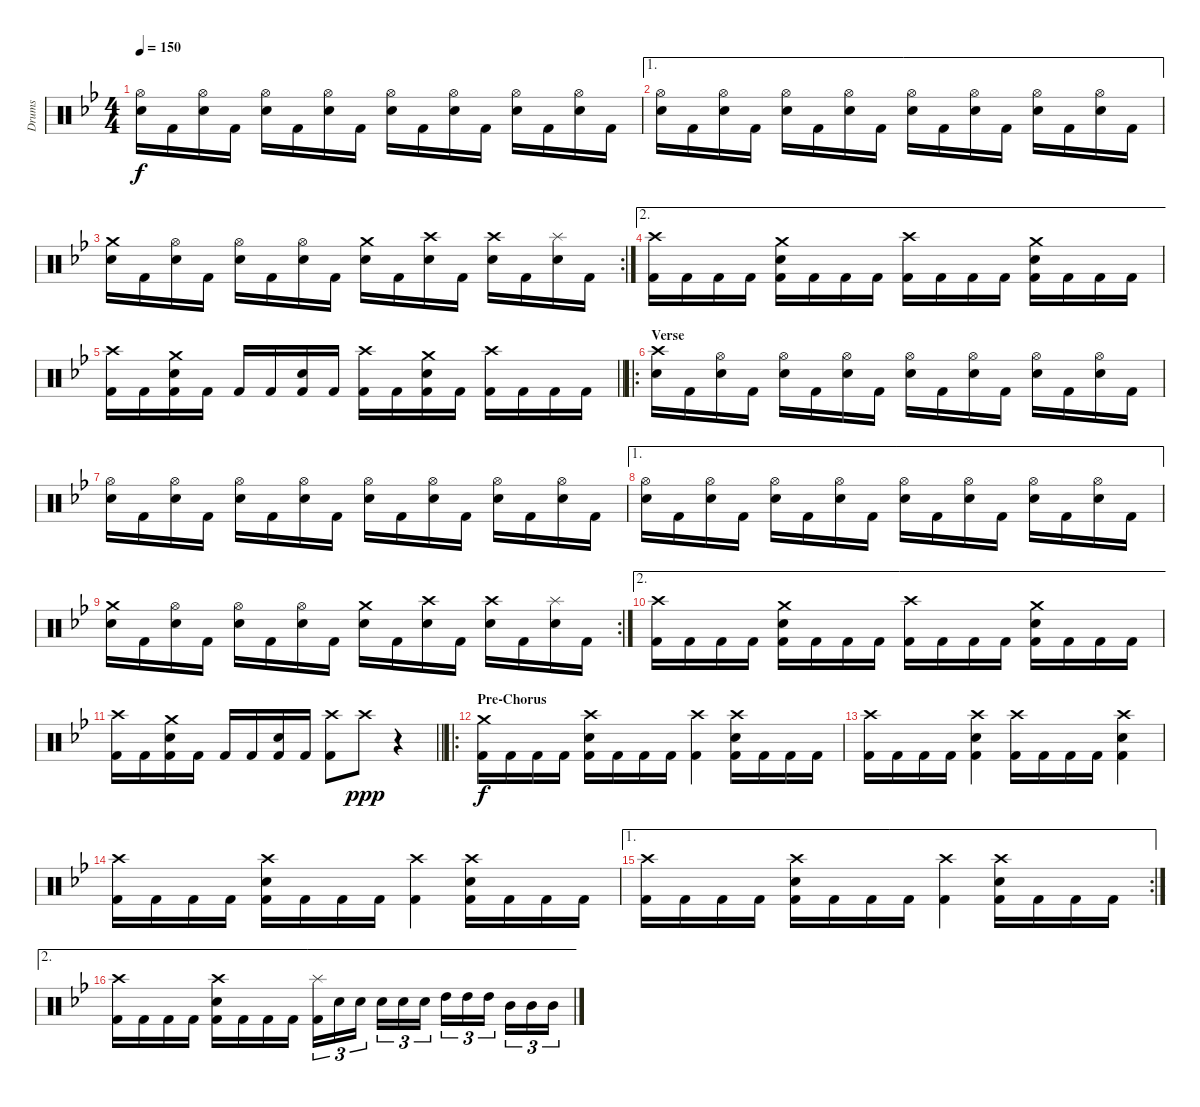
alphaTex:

\track ("Drums" "Drums") {instrument percussion}
\staff {score}
\articulation defaults
\ts (4 4)
\tempo 150
\clef neutral
\ks gminor
("Snare (hit) 2" "Hi-Hat (open)").16{dy f} "Kick (hit) 2".16 ("Snare (hit) 2" "Hi-Hat (open)").16 "Kick (hit) 2".16 ("Snare (hit) 2" "Hi-Hat (open)").16 "Kick (hit) 2".16 ("Snare (hit) 2" "Hi-Hat (open)").16 "Kick (hit) 2".16 ("Snare (hit) 2" "Hi-Hat (open)").16 "Kick (hit) 2".16 ("Snare (hit) 2" "Hi-Hat (open)").16 "Kick (hit) 2".16 ("Snare (hit) 2" "Hi-Hat (open)").16 "Kick (hit) 2".16 ("Snare (hit) 2" "Hi-Hat (open)").16 "Kick (hit) 2".16 |
\ae 1
("Snare (hit) 2" "Hi-Hat (open)").16 "Kick (hit) 2".16 ("Snare (hit) 2" "Hi-Hat (open)").16 "Kick (hit) 2".16 ("Snare (hit) 2" "Hi-Hat (open)").16 "Kick (hit) 2".16 ("Snare (hit) 2" "Hi-Hat (open)").16 "Kick (hit) 2".16 ("Snare (hit) 2" "Hi-Hat (open)").16 "Kick (hit) 2".16 ("Snare (hit) 2" "Hi-Hat (open)").16 "Kick (hit) 2".16 ("Snare (hit) 2" "Hi-Hat (open)").16 "Kick (hit) 2".16 ("Snare (hit) 2" "Hi-Hat (open)").16 "Kick (hit) 2".16 |
\rc 2
("Snare (hit) 2" "Crash medium (hit)").16 "Kick (hit) 2".16 ("Snare (hit) 2" "Hi-Hat (open)").16 "Kick (hit) 2".16 ("Snare (hit) 2" "Hi-Hat (open)").16 "Kick (hit) 2".16 ("Snare (hit) 2" "Hi-Hat (open)").16 "Kick (hit) 2".16 ("Snare (hit) 2" "Crash medium (hit)").16 "Kick (hit) 2".16 ("Snare (hit) 2" "Crash high (hit)").16 "Kick (hit) 2".16 ("Snare (hit) 2" "Crash high (hit)").16 "Kick (hit) 2".16 ("Snare (hit) 2" "Splash (hit)").16 "Kick (hit) 2".16 |
\ae 2
("Kick (hit) 2" "Crash high (hit)").16 "Kick (hit) 2".16 "Kick (hit) 2".16 "Kick (hit) 2".16 ("Kick (hit) 2" "Snare (hit) 2" "Crash medium (hit)").16 "Kick (hit) 2".16 "Kick (hit) 2".16 "Kick (hit) 2".16 ("Kick (hit) 2" "Crash high (hit)").16 "Kick (hit) 2".16 "Kick (hit) 2".16 "Kick (hit) 2".16 ("Kick (hit) 2" "Snare (hit) 2" "Crash medium (hit)").16 "Kick (hit) 2".16 "Kick (hit) 2".16 "Kick (hit) 2".16 |
\barLineRight lightlight
("Kick (hit) 2" "Crash high (hit)").16 "Kick (hit) 2".16 ("Kick (hit) 2" "Snare (hit) 2" "Crash medium (hit)").16 "Kick (hit) 2".16 "Kick (hit) 2".16 "Kick (hit) 2".16 ("Kick (hit) 2" "Snare (hit) 2").16 "Kick (hit) 2".16 ("Kick (hit) 2" "Crash high (hit)").16 "Kick (hit) 2".16 ("Kick (hit) 2" "Snare (hit) 2" "Crash medium (hit)").16 "Kick (hit) 2".16 ("Kick (hit) 2" "Crash high (hit)").16 "Kick (hit) 2".16 "Kick (hit) 2".16 "Kick (hit) 2".16 |
\ro
\section ("" "Verse")
("Snare (hit) 2" "Crash high (hit)").16 "Kick (hit) 2".16 ("Snare (hit) 2" "Hi-Hat (open)").16 "Kick (hit) 2".16 ("Snare (hit) 2" "Hi-Hat (open)").16 "Kick (hit) 2".16 ("Snare (hit) 2" "Hi-Hat (open)").16 "Kick (hit) 2".16 ("Snare (hit) 2" "Hi-Hat (open)").16 "Kick (hit) 2".16 ("Snare (hit) 2" "Hi-Hat (open)").16 "Kick (hit) 2".16 ("Snare (hit) 2" "Hi-Hat (open)").16 "Kick (hit) 2".16 ("Snare (hit) 2" "Hi-Hat (open)").16 "Kick (hit) 2".16 |
("Snare (hit) 2" "Hi-Hat (open)").16 "Kick (hit) 2".16 ("Snare (hit) 2" "Hi-Hat (open)").16 "Kick (hit) 2".16 ("Snare (hit) 2" "Hi-Hat (open)").16 "Kick (hit) 2".16 ("Snare (hit) 2" "Hi-Hat (open)").16 "Kick (hit) 2".16 ("Snare (hit) 2" "Hi-Hat (open)").16 "Kick (hit) 2".16 ("Snare (hit) 2" "Hi-Hat (open)").16 "Kick (hit) 2".16 ("Snare (hit) 2" "Hi-Hat (open)").16 "Kick (hit) 2".16 ("Snare (hit) 2" "Hi-Hat (open)").16 "Kick (hit) 2".16 |
\ae 1
("Snare (hit) 2" "Hi-Hat (open)").16 "Kick (hit) 2".16 ("Snare (hit) 2" "Hi-Hat (open)").16 "Kick (hit) 2".16 ("Snare (hit) 2" "Hi-Hat (open)").16 "Kick (hit) 2".16 ("Snare (hit) 2" "Hi-Hat (open)").16 "Kick (hit) 2".16 ("Snare (hit) 2" "Hi-Hat (open)").16 "Kick (hit) 2".16 ("Snare (hit) 2" "Hi-Hat (open)").16 "Kick (hit) 2".16 ("Snare (hit) 2" "Hi-Hat (open)").16 "Kick (hit) 2".16 ("Snare (hit) 2" "Hi-Hat (open)").16 "Kick (hit) 2".16 |
\rc 2
("Snare (hit) 2" "Crash medium (hit)").16 "Kick (hit) 2".16 ("Snare (hit) 2" "Hi-Hat (open)").16 "Kick (hit) 2".16 ("Snare (hit) 2" "Hi-Hat (open)").16 "Kick (hit) 2".16 ("Snare (hit) 2" "Hi-Hat (open)").16 "Kick (hit) 2".16 ("Snare (hit) 2" "Crash medium (hit)").16 "Kick (hit) 2".16 ("Snare (hit) 2" "Crash high (hit)").16 "Kick (hit) 2".16 ("Snare (hit) 2" "Crash high (hit)").16 "Kick (hit) 2".16 ("Snare (hit) 2" "Splash (hit)").16 "Kick (hit) 2".16 |
\ae 2
("Kick (hit) 2" "Crash high (hit)").16 "Kick (hit) 2".16 "Kick (hit) 2".16 "Kick (hit) 2".16 ("Kick (hit) 2" "Snare (hit) 2" "Crash medium (hit)").16 "Kick (hit) 2".16 "Kick (hit) 2".16 "Kick (hit) 2".16 ("Kick (hit) 2" "Crash high (hit)").16 "Kick (hit) 2".16 "Kick (hit) 2".16 "Kick (hit) 2".16 ("Kick (hit) 2" "Snare (hit) 2" "Crash medium (hit)").16 "Kick (hit) 2".16 "Kick (hit) 2".16 "Kick (hit) 2".16 |
\barLineRight lightlight
("Kick (hit) 2" "Crash high (hit)").16 "Kick (hit) 2".16 ("Kick (hit) 2" "Snare (hit) 2" "Crash medium (hit)").16 "Kick (hit) 2".16 "Kick (hit) 2".16 "Kick (hit) 2".16 ("Kick (hit) 2" "Snare (hit) 2").16 "Kick (hit) 2".16 ("Kick (hit) 2" "Crash high (hit)").8 "Crash high (hit)".8{dy ppp} r.4 |
\ro
\section ("" "Pre-Chorus")
("Kick (hit) 2" "Crash medium (hit)").16{dy f} "Kick (hit) 2".16 "Kick (hit) 2".16 "Kick (hit) 2".16 ("Kick (hit) 2" "Snare (hit) 2" "Crash high (hit)").16 "Kick (hit) 2".16 "Kick (hit) 2".16 "Kick (hit) 2".16 ("Kick (hit) 2" "Crash high (hit)").4 ("Kick (hit) 2" "Snare (hit) 2" "Crash high (hit)").16 "Kick (hit) 2".16 "Kick (hit) 2".16 "Kick (hit) 2".16 |
("Kick (hit) 2" "Crash high (hit)").16 "Kick (hit) 2".16 "Kick (hit) 2".16 "Kick (hit) 2".16 ("Kick (hit) 2" "Snare (hit) 2" "Crash high (hit)").4 ("Kick (hit) 2" "Crash high (hit)").16 "Kick (hit) 2".16 "Kick (hit) 2".16 "Kick (hit) 2".16 ("Kick (hit) 2" "Snare (hit) 2" "Crash high (hit)").4 |
("Kick (hit) 2" "Crash high (hit)").16 "Kick (hit) 2".16 "Kick (hit) 2".16 "Kick (hit) 2".16 ("Kick (hit) 2" "Snare (hit) 2" "Crash high (hit)").16 "Kick (hit) 2".16 "Kick (hit) 2".16 "Kick (hit) 2".16 ("Kick (hit) 2" "Crash high (hit)").4 ("Kick (hit) 2" "Snare (hit) 2" "Crash high (hit)").16 "Kick (hit) 2".16 "Kick (hit) 2".16 "Kick (hit) 2".16 |
\ae 1
\rc 2
("Kick (hit) 2" "Crash high (hit)").16 "Kick (hit) 2".16 "Kick (hit) 2".16 "Kick (hit) 2".16 ("Kick (hit) 2" "Snare (hit) 2" "Crash high (hit)").16 "Kick (hit) 2".16 "Kick (hit) 2".16 "Kick (hit) 2".16 ("Kick (hit) 2" "Crash high (hit)").4 ("Kick (hit) 2" "Snare (hit) 2" "Crash high (hit)").16 "Kick (hit) 2".16 "Kick (hit) 2".16 "Kick (hit) 2".16 |
\ae 2
("Kick (hit) 2" "Crash high (hit)").16 "Kick (hit) 2".16 "Kick (hit) 2".16 "Kick (hit) 2".16 ("Kick (hit) 2" "Snare (hit) 2" "Crash high (hit)").16 "Kick (hit) 2".16 "Kick (hit) 2".16 "Kick (hit) 2".16 ("Kick (hit) 2" "Splash (hit)").16{tu (3 2)} "Snare (hit) 2".16{tu (3 2)} "Snare (hit) 2".16{tu (3 2) beam splitsecondary} "Snare (hit) 2".16{tu (3 2)} "Snare (hit) 2".16{tu (3 2)} "Snare (hit) 2".16{tu (3 2)} "High Tom (hit)".16{tu (3 2)} "High Tom (hit)".16{tu (3 2)} "High Tom (hit)".16{tu (3 2) beam splitsecondary} "Mid Tom (hit)".16{tu (3 2)} "Mid Tom (hit)".16{tu (3 2)} "Mid Tom (hit)".16{tu (3 2)}
